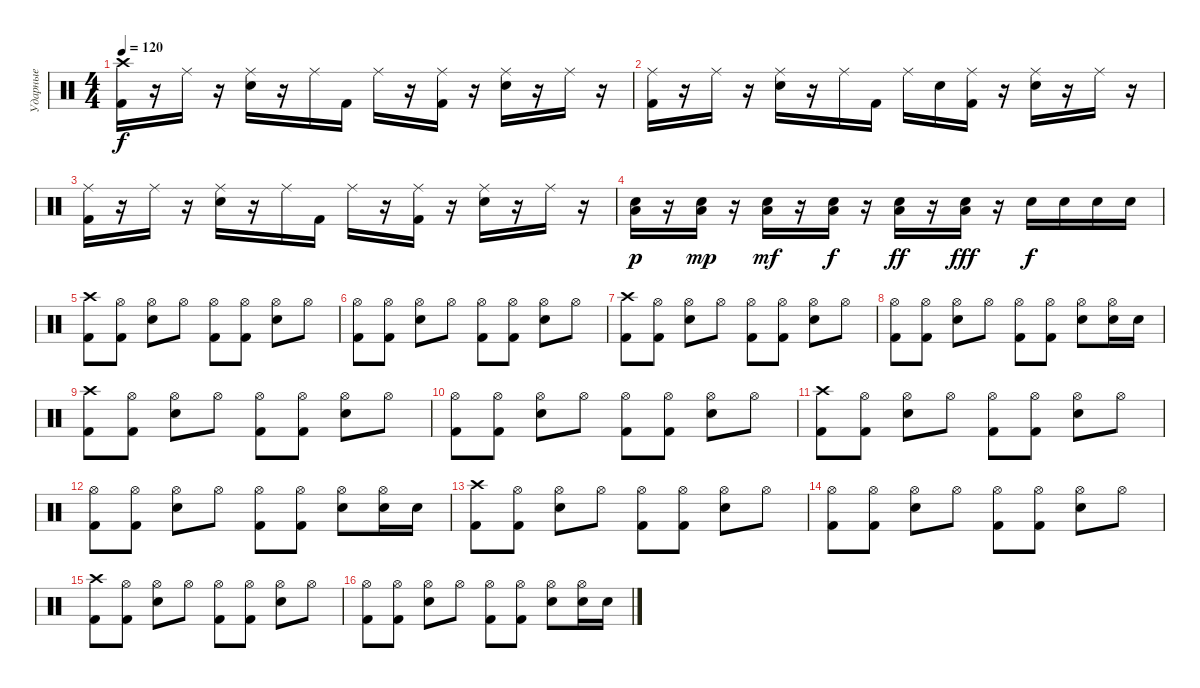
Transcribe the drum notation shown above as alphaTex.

\track ("Ударные" "Ударные") {instrument percussion}
\staff {score}
\articulation defaults
\ts (4 4)
\tempo 120
\clef neutral
\ks c
("Crash high (hit)" "Kick (hit) 2").16{dy f} r.16 "Ride (middle)".16 r.16 ("Ride (middle)" "Electric Snare (hit)").16 r.16 "Ride (middle)".16 "Kick (hit) 2".16 "Ride (middle)".16 r.16 ("Ride (middle)" "Kick (hit) 2").16 r.16 ("Ride (middle)" "Electric Snare (hit)").16 r.16 "Ride (middle)".16 r.16 |
("Ride (middle)" "Kick (hit) 2").16 r.16 "Ride (middle)".16 r.16 ("Ride (middle)" "Electric Snare (hit)").16 r.16 "Ride (middle)".16 "Kick (hit) 2".16 "Ride (middle)".16 "Electric Snare (hit)".16 ("Ride (middle)" "Kick (hit) 2").16 r.16 ("Ride (middle)" "Electric Snare (hit)").16 r.16 "Ride (middle)".16 r.16 |
("Ride (middle)" "Kick (hit) 2").16 r.16 "Ride (middle)".16 r.16 ("Ride (middle)" "Electric Snare (hit)").16 r.16 "Ride (middle)".16 "Kick (hit) 2".16 "Ride (middle)".16 r.16 ("Ride (middle)" "Kick (hit) 2").16 r.16 ("Ride (middle)" "Electric Snare (hit)").16 r.16 "Ride (middle)".16 r.16 |
("Low Floor Tom (hit)" "Electric Snare (hit)").16{dy p} r.16 ("Low Floor Tom (hit)" "Electric Snare (hit)").16{dy mp} r.16 ("Low Floor Tom (hit)" "Electric Snare (hit)").16{dy mf} r.16 ("Low Floor Tom (hit)" "Electric Snare (hit)").16{dy f} r.16 ("Low Floor Tom (hit)" "Electric Snare (hit)").16{dy ff} r.16 ("Low Floor Tom (hit)" "Electric Snare (hit)").16{dy fff} r.16 "Electric Snare (hit)".16{dy f} "Electric Snare (hit)".16 "Electric Snare (hit)".16 "Electric Snare (hit)".16 |
("Crash high (hit)" "Kick (hit) 2").8 ("Hi-Hat (open)" "Kick (hit) 2").8 ("Hi-Hat (open)" "Electric Snare (hit)").8 "Hi-Hat (open)".8 ("Hi-Hat (open)" "Kick (hit) 2").8 ("Hi-Hat (open)" "Kick (hit) 2").8 ("Hi-Hat (open)" "Electric Snare (hit)").8 "Hi-Hat (open)".8 |
("Hi-Hat (open)" "Kick (hit) 2").8 ("Hi-Hat (open)" "Kick (hit) 2").8 ("Hi-Hat (open)" "Electric Snare (hit)").8 "Hi-Hat (open)".8 ("Hi-Hat (open)" "Kick (hit) 2").8 ("Hi-Hat (open)" "Kick (hit) 2").8 ("Hi-Hat (open)" "Electric Snare (hit)").8 "Hi-Hat (open)".8 |
("Crash high (hit)" "Kick (hit) 2").8 ("Hi-Hat (open)" "Kick (hit) 2").8 ("Hi-Hat (open)" "Electric Snare (hit)").8 "Hi-Hat (open)".8 ("Hi-Hat (open)" "Kick (hit) 2").8 ("Hi-Hat (open)" "Kick (hit) 2").8 ("Hi-Hat (open)" "Electric Snare (hit)").8 "Hi-Hat (open)".8 |
("Hi-Hat (open)" "Kick (hit) 2").8 ("Hi-Hat (open)" "Kick (hit) 2").8 ("Hi-Hat (open)" "Electric Snare (hit)").8 "Hi-Hat (open)".8 ("Hi-Hat (open)" "Kick (hit) 2").8 ("Hi-Hat (open)" "Kick (hit) 2").8 ("Hi-Hat (open)" "Electric Snare (hit)").8 ("Hi-Hat (open)" "Electric Snare (hit)").16 "Electric Snare (hit)".16 |
("Crash high (hit)" "Kick (hit) 2").8 ("Hi-Hat (open)" "Kick (hit) 2").8 ("Hi-Hat (open)" "Electric Snare (hit)").8 "Hi-Hat (open)".8 ("Hi-Hat (open)" "Kick (hit) 2").8 ("Hi-Hat (open)" "Kick (hit) 2").8 ("Hi-Hat (open)" "Electric Snare (hit)").8 "Hi-Hat (open)".8 |
("Hi-Hat (open)" "Kick (hit) 2").8 ("Hi-Hat (open)" "Kick (hit) 2").8 ("Hi-Hat (open)" "Electric Snare (hit)").8 "Hi-Hat (open)".8 ("Hi-Hat (open)" "Kick (hit) 2").8 ("Hi-Hat (open)" "Kick (hit) 2").8 ("Hi-Hat (open)" "Electric Snare (hit)").8 "Hi-Hat (open)".8 |
("Crash high (hit)" "Kick (hit) 2").8 ("Hi-Hat (open)" "Kick (hit) 2").8 ("Hi-Hat (open)" "Electric Snare (hit)").8 "Hi-Hat (open)".8 ("Hi-Hat (open)" "Kick (hit) 2").8 ("Hi-Hat (open)" "Kick (hit) 2").8 ("Hi-Hat (open)" "Electric Snare (hit)").8 "Hi-Hat (open)".8 |
("Hi-Hat (open)" "Kick (hit) 2").8 ("Hi-Hat (open)" "Kick (hit) 2").8 ("Hi-Hat (open)" "Electric Snare (hit)").8 "Hi-Hat (open)".8 ("Hi-Hat (open)" "Kick (hit) 2").8 ("Hi-Hat (open)" "Kick (hit) 2").8 ("Hi-Hat (open)" "Electric Snare (hit)").8 ("Hi-Hat (open)" "Electric Snare (hit)").16 "Electric Snare (hit)".16 |
("Crash high (hit)" "Kick (hit) 2").8 ("Hi-Hat (open)" "Kick (hit) 2").8 ("Hi-Hat (open)" "Electric Snare (hit)").8 "Hi-Hat (open)".8 ("Hi-Hat (open)" "Kick (hit) 2").8 ("Hi-Hat (open)" "Kick (hit) 2").8 ("Hi-Hat (open)" "Electric Snare (hit)").8 "Hi-Hat (open)".8 |
("Hi-Hat (open)" "Kick (hit) 2").8 ("Hi-Hat (open)" "Kick (hit) 2").8 ("Hi-Hat (open)" "Electric Snare (hit)").8 "Hi-Hat (open)".8 ("Hi-Hat (open)" "Kick (hit) 2").8 ("Hi-Hat (open)" "Kick (hit) 2").8 ("Hi-Hat (open)" "Electric Snare (hit)").8 "Hi-Hat (open)".8 |
("Crash high (hit)" "Kick (hit) 2").8 ("Hi-Hat (open)" "Kick (hit) 2").8 ("Hi-Hat (open)" "Electric Snare (hit)").8 "Hi-Hat (open)".8 ("Hi-Hat (open)" "Kick (hit) 2").8 ("Hi-Hat (open)" "Kick (hit) 2").8 ("Hi-Hat (open)" "Electric Snare (hit)").8 "Hi-Hat (open)".8 |
("Hi-Hat (open)" "Kick (hit) 2").8 ("Hi-Hat (open)" "Kick (hit) 2").8 ("Hi-Hat (open)" "Electric Snare (hit)").8 "Hi-Hat (open)".8 ("Hi-Hat (open)" "Kick (hit) 2").8 ("Hi-Hat (open)" "Kick (hit) 2").8 ("Hi-Hat (open)" "Electric Snare (hit)").8 ("Hi-Hat (open)" "Electric Snare (hit)").16 "Electric Snare (hit)".16
